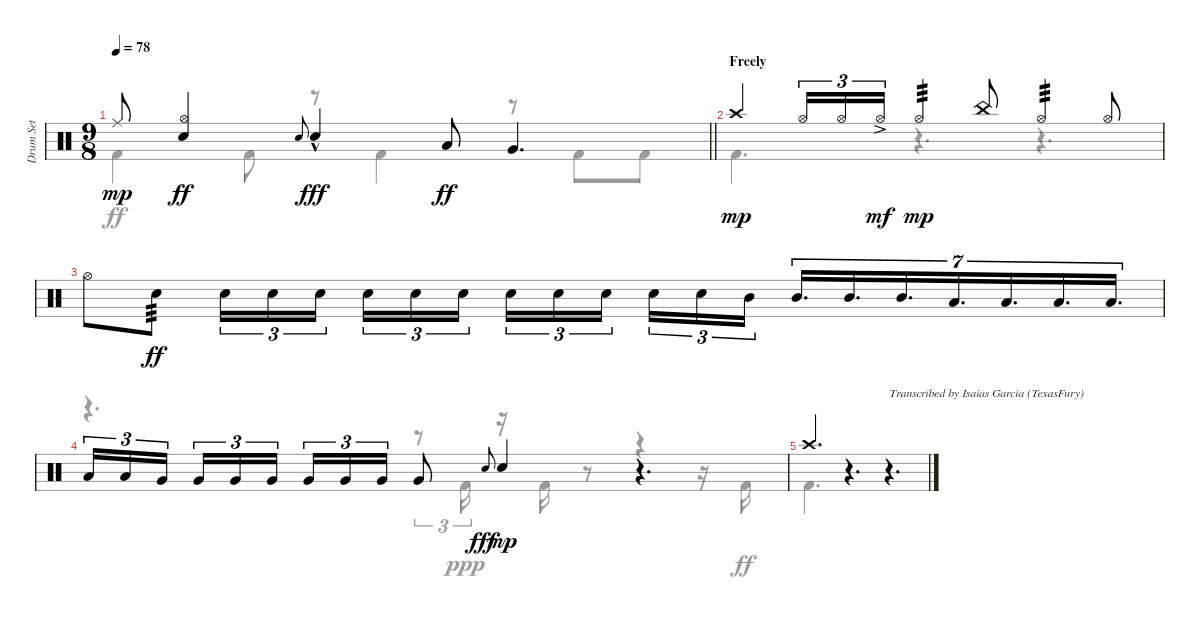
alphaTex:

\track ("Drum Set" "Drum Set") {instrument percussion}
\staff {score}
\articulation defaults
\voice
\ts (9 8)
\tempo 78
\clef neutral
\barLineRight lightlight
\ks c "Ride (middle)".8{dy mp}
("Hi-Hat (open)" "Electric Snare (hit)").4{dy ff} "Electric Snare (hit)".8{gr onbeat} "Electric Snare (hit)"{hac}.4{dy fff} "Low Tom (hit)".8{dy ff} "Very Low Tom (hit)".4{d} |
\section ("" "Freely")
"Crash high (hit)".4{dy mp} "Hi-Hat (open)".16{tu (3 2)} "Hi-Hat (open)".16{tu (3 2)} "Hi-Hat (open)"{ac}.16{tu (3 2) dy mf} "Hi-Hat (open)".4{tp 3 dy mp} "China (hit)".8 "Hi-Hat (open)".4{tp 3} "Hi-Hat (open)".8 |
"Hi-Hat (open)".8 "Electric Snare (hit)".8{tp 3 dy ff} "Electric Snare (hit)".16{tu (3 2)} "Electric Snare (hit)".16{tu (3 2)} "Electric Snare (hit)".16{tu (3 2)} "Electric Snare (hit)".16{tu (3 2)} "Electric Snare (hit)".16{tu (3 2)} "Electric Snare (hit)".16{tu (3 2) beam splitsecondary} "Electric Snare (hit)".16{tu (3 2)} "Electric Snare (hit)".16{tu (3 2)} "Electric Snare (hit)".16{tu (3 2) beam splitsecondary} "Electric Snare (hit)".16{tu (3 2)} "Electric Snare (hit)".16{tu (3 2)} "Mid Tom (hit)".16{tu (3 2)} "Mid Tom (hit)".16{d tu (7 4)} "Mid Tom (hit)".16{d tu (7 4)} "Mid Tom (hit)".16{d tu (7 4)} "Low Tom (hit)".16{d tu (7 4)} "Low Tom (hit)".16{d tu (7 4)} "Low Tom (hit)".16{d tu (7 4)} "Low Tom (hit)".16{d tu (7 4)} |
"Low Tom (hit)".16{tu (3 2)} "Low Tom (hit)".16{tu (3 2)} "Very Low Tom (hit)".16{tu (3 2) beam splitsecondary} "Very Low Tom (hit)".16{tu (3 2)} "Very Low Tom (hit)".16{tu (3 2)} "Very Low Tom (hit)".16{tu (3 2) beam splitsecondary} "Very Low Tom (hit)".16{tu (3 2)} "Very Low Tom (hit)".16{tu (3 2)} "Very Low Tom (hit)".16{tu (3 2)} "Very Low Tom (hit)".8 "Electric Snare (hit)".8{gr onbeat dy fff} "Electric Snare (hit)".4{dy mp} r.4{d} |
"Crash high (hit)".4{d} r.4{d} r.4{d txt "Transcribed by Isaias Garcia (TexasFury)"}
\voice
\clef neutral
\ottava regular
\simile none
\barLineRight lightlight
\ks c "Kick (hit) 2".4{dy ff} "Kick (hit) 2".8
r.8 "Kick (hit) 2".4 r.8 "Kick (hit) 2".8 "Kick (hit) 2".8 |
"Kick (hit) 2".4{d} r.4{d} r.4{d} |
|
r.4{d} r.8{tu (3 2)} "Kick (hit) 2".16{tu (3 2) dy ppp} r.16 "Kick (hit) 2".16 r.8 r.4 r.16 "Kick (hit) 2".16{dy ff} |
"Kick (hit) 2".4{d} r.4{d} r.4{d}
